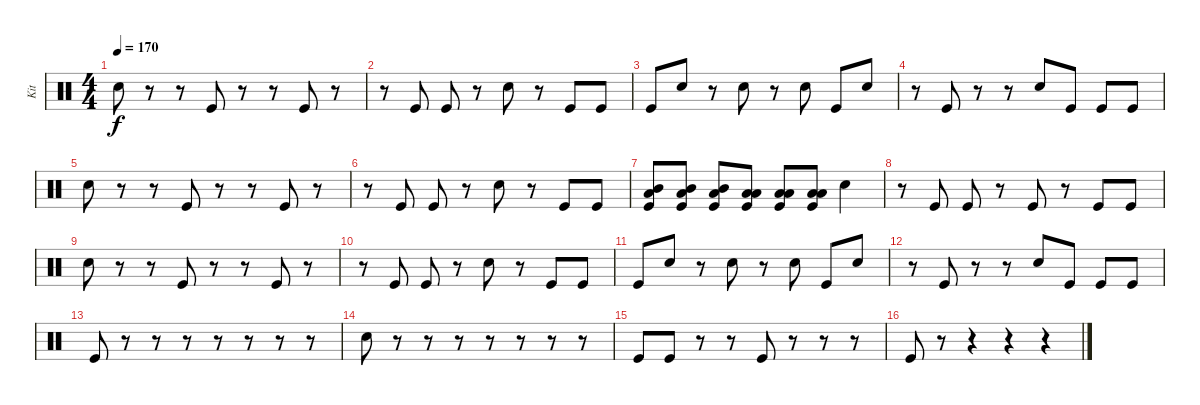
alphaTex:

\track ("Kit" "Kit") {instrument percussion}
\staff {score}
\articulation defaults
\ts (4 4)
\tempo 170
\clef neutral
\ks c "Snare (hit) 2".8{dy f}
r.8 r.8 "Kick (hit)".8 r.8 r.8 "Kick (hit)".8 r.8 |
r.8 "Kick (hit)".8 "Kick (hit)".8 r.8 "Snare (hit) 2".8 r.8 "Kick (hit)".8 "Kick (hit)".8 |
"Kick (hit)".8 "Snare (hit) 2".8 r.8 "Snare (hit) 2".8 r.8 "Snare (hit) 2".8 "Kick (hit)".8 "Snare (hit) 2".8 |
r.8 "Kick (hit)".8 r.8 r.8 "Snare (hit) 2".8 "Kick (hit)".8 "Kick (hit)".8 "Kick (hit)".8 |
"Snare (hit) 2".8 r.8 r.8 "Kick (hit)".8 r.8 r.8 "Kick (hit)".8 r.8 |
r.8 "Kick (hit)".8 "Kick (hit)".8 r.8 "Snare (hit) 2".8 r.8 "Kick (hit)".8 "Kick (hit)".8 |
("Low Floor Tom (hit)" "Mid Tom (hit)" "Kick (hit)").8 ("Low Floor Tom (hit)" "Mid Tom (hit)" "Kick (hit)").8 ("Low Floor Tom (hit)" "Mid Tom (hit)" "Kick (hit)").8 ("Low Tom (hit)" "Low Floor Tom (hit)" "Kick (hit)").8 ("Low Tom (hit)" "Low Floor Tom (hit)" "Kick (hit)").8 ("Low Tom (hit)" "Low Floor Tom (hit)" "Kick (hit)").8 "Snare (hit) 2".4 |
r.8 "Kick (hit)".8 "Kick (hit)".8 r.8 "Kick (hit)".8 r.8 "Kick (hit)".8 "Kick (hit)".8 |
"Snare (hit) 2".8 r.8 r.8 "Kick (hit)".8 r.8 r.8 "Kick (hit)".8 r.8 |
r.8 "Kick (hit)".8 "Kick (hit)".8 r.8 "Snare (hit) 2".8 r.8 "Kick (hit)".8 "Kick (hit)".8 |
"Kick (hit)".8 "Snare (hit) 2".8 r.8 "Snare (hit) 2".8 r.8 "Snare (hit) 2".8 "Kick (hit)".8 "Snare (hit) 2".8 |
r.8 "Kick (hit)".8 r.8 r.8 "Snare (hit) 2".8 "Kick (hit)".8 "Kick (hit)".8 "Kick (hit)".8 |
"Kick (hit)".8 r.8 r.8 r.8 r.8 r.8 r.8 r.8 |
"Snare (hit) 2".8 r.8 r.8 r.8 r.8 r.8 r.8 r.8 |
"Kick (hit)".8 "Kick (hit)".8 r.8 r.8 "Kick (hit)".8 r.8 r.8 r.8 |
"Kick (hit)".8 r.8 r.4 r.4 r.4
